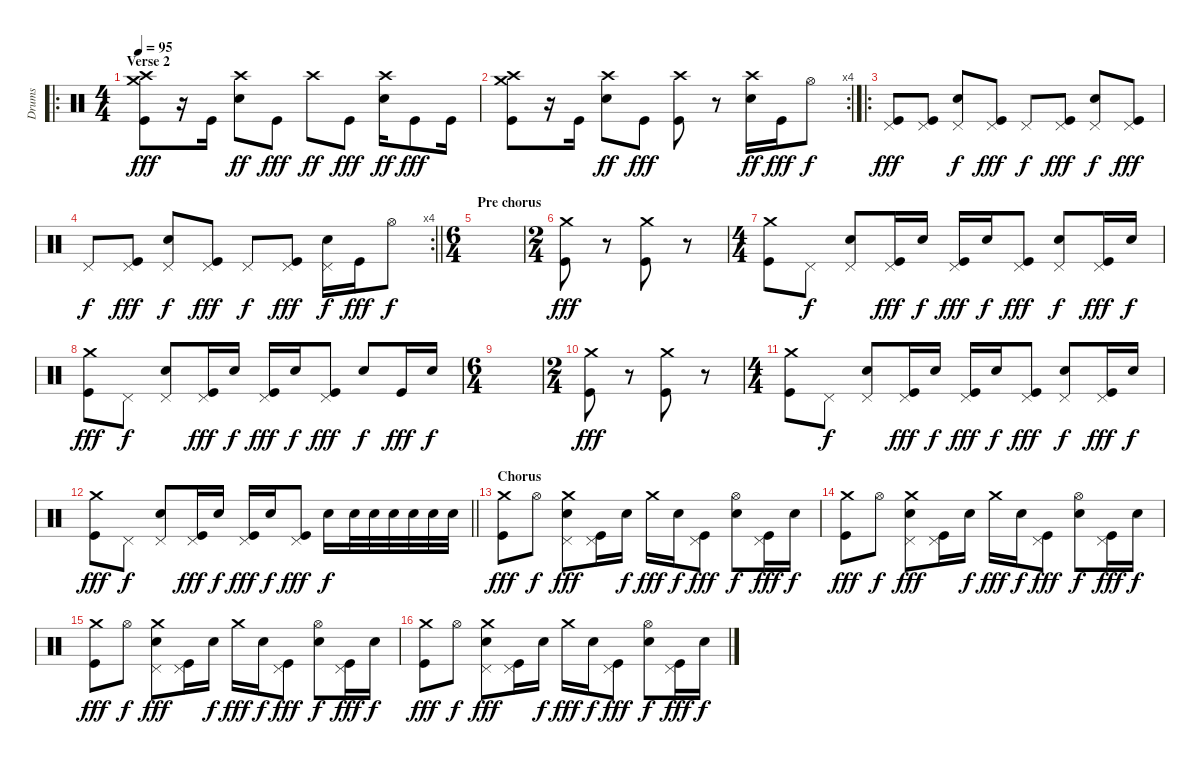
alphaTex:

\track ("Drums" "Drums") {instrument percussion}
\staff {score}
\articulation defaults
\ro
\ts (4 4)
\section ("" "Verse 2")
\tempo 95
\clef neutral
\ks c
("Crash medium (hit)" "Crash high (hit)" "Kick (hit)").8{dy fff} r.16 "Kick (hit)".16 ("Crash high (hit)" "Snare (hit) 2").8{dy ff} "Kick (hit)".8{dy fff} "Crash high (hit)".8{dy ff} "Kick (hit)".8{dy fff} ("Crash high (hit)" "Snare (hit) 2").16{dy ff} "Kick (hit)".8{dy fff} "Kick (hit)".16 |
\rc 4
("Crash medium (hit)" "Crash high (hit)" "Kick (hit)").8 r.16 "Kick (hit)".16 ("Crash high (hit)" "Snare (hit) 2").8{dy ff} "Kick (hit)".8{dy fff} ("Crash high (hit)" "Kick (hit)").8 r.8 ("Crash high (hit)" "Snare (hit) 2").16{dy ff} "Kick (hit)".16{dy fff} "Hi-Hat (open)".8{dy f} |
\ro
("Pedal Hi-Hat (hit)" "Kick (hit)").8{dy fff} ("Pedal Hi-Hat (hit)" "Kick (hit)").8 ("Pedal Hi-Hat (hit)" "Snare (hit) 2").8{dy f} ("Pedal Hi-Hat (hit)" "Kick (hit)").8{dy fff} "Pedal Hi-Hat (hit)".8{dy f} ("Pedal Hi-Hat (hit)" "Kick (hit)").8{dy fff} ("Pedal Hi-Hat (hit)" "Snare (hit) 2").8{dy f} ("Pedal Hi-Hat (hit)" "Kick (hit)").8{dy fff} |
\rc 4
\barLineRight lightlight "Pedal Hi-Hat (hit)".8{dy f}
("Pedal Hi-Hat (hit)" "Kick (hit)").8{dy fff} ("Pedal Hi-Hat (hit)" "Snare (hit) 2").8{dy f} ("Pedal Hi-Hat (hit)" "Kick (hit)").8{dy fff} "Pedal Hi-Hat (hit)".8{dy f} ("Pedal Hi-Hat (hit)" "Kick (hit)").8{dy fff} ("Pedal Hi-Hat (hit)" "Snare (hit) 2").16{dy f} "Kick (hit)".16{dy fff} "Hi-Hat (open)".8{dy f} |
\ts (6 4)
\section ("" "Pre chorus")
|
\ts (2 4)
("Crash medium (hit)" "Kick (hit)").8{dy fff} r.8 ("Crash medium (hit)" "Kick (hit)").8 r.8 |
\ts (4 4)
("Crash medium (hit)" "Kick (hit)").8 "Pedal Hi-Hat (hit)".8{dy f} ("Pedal Hi-Hat (hit)" "Snare (hit) 2").8 ("Pedal Hi-Hat (hit)" "Kick (hit)").16{dy fff} "Snare (hit) 2".16{dy f} ("Pedal Hi-Hat (hit)" "Kick (hit)").16{dy fff} "Snare (hit) 2".16{dy f} ("Pedal Hi-Hat (hit)" "Kick (hit)").8{dy fff} ("Pedal Hi-Hat (hit)" "Snare (hit) 2").8{dy f} ("Pedal Hi-Hat (hit)" "Kick (hit)").16{dy fff} "Snare (hit) 2".16{dy f} |
("Crash medium (hit)" "Kick (hit)").8{dy fff} "Pedal Hi-Hat (hit)".8{dy f} ("Pedal Hi-Hat (hit)" "Snare (hit) 2").8 ("Pedal Hi-Hat (hit)" "Kick (hit)").16{dy fff} "Snare (hit) 2".16{dy f} ("Pedal Hi-Hat (hit)" "Kick (hit)").16{dy fff} "Snare (hit) 2".16{dy f} ("Pedal Hi-Hat (hit)" "Kick (hit)").8{dy fff} "Snare (hit) 2".8{dy f} "Kick (hit)".16{dy fff} "Snare (hit) 2".16{dy f} |
\ts (6 4)
|
\ts (2 4)
("Crash medium (hit)" "Kick (hit)").8{dy fff} r.8 ("Crash medium (hit)" "Kick (hit)").8 r.8 |
\ts (4 4)
("Crash medium (hit)" "Kick (hit)").8 "Pedal Hi-Hat (hit)".8{dy f} ("Pedal Hi-Hat (hit)" "Snare (hit) 2").8 ("Pedal Hi-Hat (hit)" "Kick (hit)").16{dy fff} "Snare (hit) 2".16{dy f} ("Pedal Hi-Hat (hit)" "Kick (hit)").16{dy fff} "Snare (hit) 2".16{dy f} ("Pedal Hi-Hat (hit)" "Kick (hit)").8{dy fff} ("Pedal Hi-Hat (hit)" "Snare (hit) 2").8{dy f} ("Pedal Hi-Hat (hit)" "Kick (hit)").16{dy fff} "Snare (hit) 2".16{dy f} |
\barLineRight lightlight
("Crash medium (hit)" "Kick (hit)").8{dy fff} "Pedal Hi-Hat (hit)".8{dy f} ("Pedal Hi-Hat (hit)" "Snare (hit) 2").8 ("Pedal Hi-Hat (hit)" "Kick (hit)").16{dy fff} "Snare (hit) 2".16{dy f} ("Pedal Hi-Hat (hit)" "Kick (hit)").16{dy fff} "Snare (hit) 2".16{dy f} ("Pedal Hi-Hat (hit)" "Kick (hit)").8{dy fff} "Snare (hit) 2".16{dy f} "Snare (hit) 2".32 "Snare (hit) 2".32 "Snare (hit) 2".32 "Snare (hit) 2".32 "Snare (hit) 2".32 "Snare (hit) 2".32 |
\section ("" "Chorus")
("Crash medium (hit)" "Kick (hit)").8{dy fff} "Hi-Hat (open)".8{dy f} ("Crash medium (hit)" "Pedal Hi-Hat (hit)" "Snare (hit) 2").8{dy fff} ("Pedal Hi-Hat (hit)" "Kick (hit)").16 "Snare (hit) 2".16{dy f} "Crash medium (hit)".16{dy fff} "Snare (hit) 2".16{dy f} ("Pedal Hi-Hat (hit)" "Kick (hit)").8{dy fff} ("Hi-Hat (open)" "Snare (hit) 2").8{dy f} ("Pedal Hi-Hat (hit)" "Kick (hit)").16{dy fff} "Snare (hit) 2".16{dy f} |
("Crash medium (hit)" "Kick (hit)").8{dy fff} "Hi-Hat (open)".8{dy f} ("Crash medium (hit)" "Pedal Hi-Hat (hit)" "Snare (hit) 2").8{dy fff} ("Pedal Hi-Hat (hit)" "Kick (hit)").16 "Snare (hit) 2".16{dy f} "Crash medium (hit)".16{dy fff} "Snare (hit) 2".16{dy f} ("Pedal Hi-Hat (hit)" "Kick (hit)").8{dy fff} ("Hi-Hat (open)" "Snare (hit) 2").8{dy f} ("Pedal Hi-Hat (hit)" "Kick (hit)").16{dy fff} "Snare (hit) 2".16{dy f} |
("Crash medium (hit)" "Kick (hit)").8{dy fff} "Hi-Hat (open)".8{dy f} ("Crash medium (hit)" "Pedal Hi-Hat (hit)" "Snare (hit) 2").8{dy fff} ("Pedal Hi-Hat (hit)" "Kick (hit)").16 "Snare (hit) 2".16{dy f} "Crash medium (hit)".16{dy fff} "Snare (hit) 2".16{dy f} ("Pedal Hi-Hat (hit)" "Kick (hit)").8{dy fff} ("Hi-Hat (open)" "Snare (hit) 2").8{dy f} ("Pedal Hi-Hat (hit)" "Kick (hit)").16{dy fff} "Snare (hit) 2".16{dy f} |
("Crash medium (hit)" "Kick (hit)").8{dy fff} "Hi-Hat (open)".8{dy f} ("Crash medium (hit)" "Pedal Hi-Hat (hit)" "Snare (hit) 2").8{dy fff} ("Pedal Hi-Hat (hit)" "Kick (hit)").16 "Snare (hit) 2".16{dy f} "Crash medium (hit)".16{dy fff} "Snare (hit) 2".16{dy f} ("Pedal Hi-Hat (hit)" "Kick (hit)").8{dy fff} ("Hi-Hat (open)" "Snare (hit) 2").8{dy f} ("Pedal Hi-Hat (hit)" "Kick (hit)").16{dy fff} "Snare (hit) 2".16{dy f}
